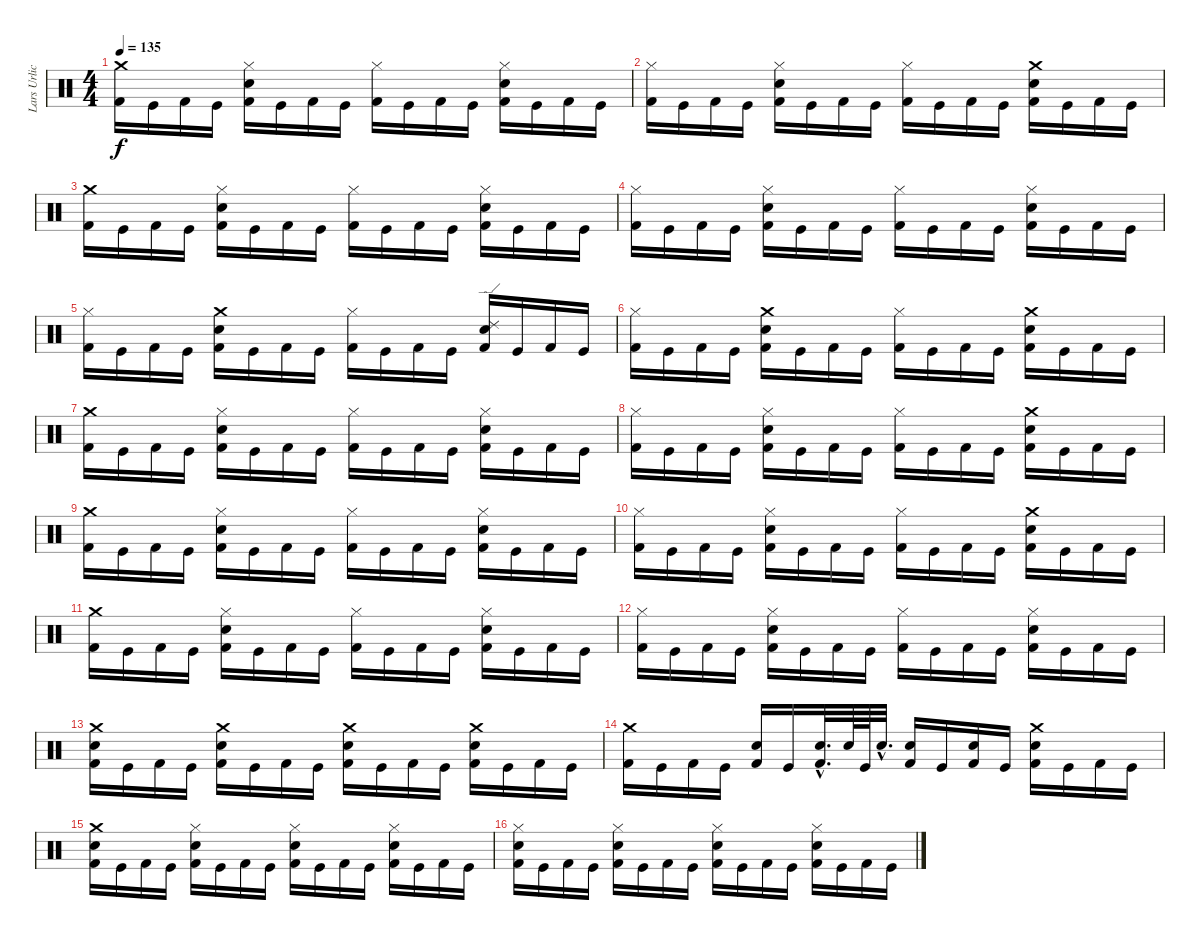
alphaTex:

\track ("Lars Urlich (drums)" "Lars Urlic") {instrument percussion}
\staff {score}
\articulation defaults
\ts (4 4)
\tempo 135
\clef neutral
\ks c
("Crash medium (hit)" "Kick (hit) 2").16{dy f} "Kick (hit)".16 "Kick (hit) 2".16 "Kick (hit)".16 ("Snare (hit) 2" "Hi-Hat (closed)" "Kick (hit) 2").16 "Kick (hit)".16 "Kick (hit) 2".16 "Kick (hit)".16 ("Hi-Hat (closed)" "Kick (hit) 2").16 "Kick (hit)".16 "Kick (hit) 2".16 "Kick (hit)".16 ("Snare (hit) 2" "Hi-Hat (closed)" "Kick (hit) 2").16 "Kick (hit)".16 "Kick (hit) 2".16 "Kick (hit)".16 |
("Hi-Hat (closed)" "Kick (hit) 2").16 "Kick (hit)".16 "Kick (hit) 2".16 "Kick (hit)".16 ("Snare (hit) 2" "Hi-Hat (closed)" "Kick (hit) 2").16 "Kick (hit)".16 "Kick (hit) 2".16 "Kick (hit)".16 ("Hi-Hat (closed)" "Kick (hit) 2").16 "Kick (hit)".16 "Kick (hit) 2".16 "Kick (hit)".16 ("Crash medium (hit)" "Snare (hit) 2" "Kick (hit) 2").16 "Kick (hit)".16 "Kick (hit) 2".16 "Kick (hit)".16 |
("Crash medium (hit)" "Kick (hit) 2").16 "Kick (hit)".16 "Kick (hit) 2".16 "Kick (hit)".16 ("Snare (hit) 2" "Hi-Hat (closed)" "Kick (hit) 2").16 "Kick (hit)".16 "Kick (hit) 2".16 "Kick (hit)".16 ("Hi-Hat (closed)" "Kick (hit) 2").16 "Kick (hit)".16 "Kick (hit) 2".16 "Kick (hit)".16 ("Snare (hit) 2" "Hi-Hat (closed)" "Kick (hit) 2").16 "Kick (hit)".16 "Kick (hit) 2".16 "Kick (hit)".16 |
("Hi-Hat (closed)" "Kick (hit) 2").16 "Kick (hit)".16 "Kick (hit) 2".16 "Kick (hit)".16 ("Snare (hit) 2" "Hi-Hat (closed)" "Kick (hit) 2").16 "Kick (hit)".16 "Kick (hit) 2".16 "Kick (hit)".16 ("Hi-Hat (closed)" "Kick (hit) 2").16 "Kick (hit)".16 "Kick (hit) 2".16 "Kick (hit)".16 ("Snare (hit) 2" "Hi-Hat (closed)" "Kick (hit) 2").16 "Kick (hit)".16 "Kick (hit) 2".16 "Kick (hit)".16 |
("Hi-Hat (closed)" "Kick (hit) 2").16 "Kick (hit)".16 "Kick (hit) 2".16 "Kick (hit)".16 ("Crash medium (hit)" "Snare (hit) 2" "Kick (hit) 2").16 "Kick (hit)".16 "Kick (hit) 2".16 "Kick (hit)".16 ("Hi-Hat (closed)" "Kick (hit) 2").16 "Kick (hit)".16 "Kick (hit) 2".16 "Kick (hit)".16 ("Ride (edge) 2" "Snare (hit) 2" "Kick (hit) 2").16 "Kick (hit)".16 "Kick (hit) 2".16 "Kick (hit)".16 |
("Hi-Hat (closed)" "Kick (hit) 2").16 "Kick (hit)".16 "Kick (hit) 2".16 "Kick (hit)".16 ("Crash medium (hit)" "Snare (hit) 2" "Kick (hit) 2").16 "Kick (hit)".16 "Kick (hit) 2".16 "Kick (hit)".16 ("Hi-Hat (closed)" "Kick (hit) 2").16 "Kick (hit)".16 "Kick (hit) 2".16 "Kick (hit)".16 ("Crash medium (hit)" "Snare (hit) 2" "Kick (hit) 2").16 "Kick (hit)".16 "Kick (hit) 2".16 "Kick (hit)".16 |
("Crash medium (hit)" "Kick (hit) 2").16 "Kick (hit)".16 "Kick (hit) 2".16 "Kick (hit)".16 ("Snare (hit) 2" "Hi-Hat (closed)" "Kick (hit) 2").16 "Kick (hit)".16 "Kick (hit) 2".16 "Kick (hit)".16 ("Hi-Hat (closed)" "Kick (hit) 2").16 "Kick (hit)".16 "Kick (hit) 2".16 "Kick (hit)".16 ("Snare (hit) 2" "Hi-Hat (closed)" "Kick (hit) 2").16 "Kick (hit)".16 "Kick (hit) 2".16 "Kick (hit)".16 |
("Hi-Hat (closed)" "Kick (hit) 2").16 "Kick (hit)".16 "Kick (hit) 2".16 "Kick (hit)".16 ("Snare (hit) 2" "Hi-Hat (closed)" "Kick (hit) 2").16 "Kick (hit)".16 "Kick (hit) 2".16 "Kick (hit)".16 ("Hi-Hat (closed)" "Kick (hit) 2").16 "Kick (hit)".16 "Kick (hit) 2".16 "Kick (hit)".16 ("Crash medium (hit)" "Snare (hit) 2" "Kick (hit) 2").16 "Kick (hit)".16 "Kick (hit) 2".16 "Kick (hit)".16 |
("Crash medium (hit)" "Kick (hit) 2").16 "Kick (hit)".16 "Kick (hit) 2".16 "Kick (hit)".16 ("Snare (hit) 2" "Hi-Hat (closed)" "Kick (hit) 2").16 "Kick (hit)".16 "Kick (hit) 2".16 "Kick (hit)".16 ("Hi-Hat (closed)" "Kick (hit) 2").16 "Kick (hit)".16 "Kick (hit) 2".16 "Kick (hit)".16 ("Snare (hit) 2" "Hi-Hat (closed)" "Kick (hit) 2").16 "Kick (hit)".16 "Kick (hit) 2".16 "Kick (hit)".16 |
("Hi-Hat (closed)" "Kick (hit) 2").16 "Kick (hit)".16 "Kick (hit) 2".16 "Kick (hit)".16 ("Snare (hit) 2" "Hi-Hat (closed)" "Kick (hit) 2").16 "Kick (hit)".16 "Kick (hit) 2".16 "Kick (hit)".16 ("Hi-Hat (closed)" "Kick (hit) 2").16 "Kick (hit)".16 "Kick (hit) 2".16 "Kick (hit)".16 ("Crash medium (hit)" "Snare (hit) 2" "Kick (hit) 2").16 "Kick (hit)".16 "Kick (hit) 2".16 "Kick (hit)".16 |
("Crash medium (hit)" "Kick (hit) 2").16 "Kick (hit)".16 "Kick (hit) 2".16 "Kick (hit)".16 ("Snare (hit) 2" "Hi-Hat (closed)" "Kick (hit) 2").16 "Kick (hit)".16 "Kick (hit) 2".16 "Kick (hit)".16 ("Hi-Hat (closed)" "Kick (hit) 2").16 "Kick (hit)".16 "Kick (hit) 2".16 "Kick (hit)".16 ("Snare (hit) 2" "Hi-Hat (closed)" "Kick (hit) 2").16 "Kick (hit)".16 "Kick (hit) 2".16 "Kick (hit)".16 |
("Hi-Hat (closed)" "Kick (hit) 2").16 "Kick (hit)".16 "Kick (hit) 2".16 "Kick (hit)".16 ("Snare (hit) 2" "Hi-Hat (closed)" "Kick (hit) 2").16 "Kick (hit)".16 "Kick (hit) 2".16 "Kick (hit)".16 ("Hi-Hat (closed)" "Kick (hit) 2").16 "Kick (hit)".16 "Kick (hit) 2".16 "Kick (hit)".16 ("Snare (hit) 2" "Hi-Hat (closed)" "Kick (hit) 2").16 "Kick (hit)".16 "Kick (hit) 2".16 "Kick (hit)".16 |
("Crash medium (hit)" "Snare (hit) 2" "Kick (hit) 2").16 "Kick (hit)".16 "Kick (hit) 2".16 "Kick (hit)".16 ("Crash medium (hit)" "Snare (hit) 2" "Kick (hit) 2").16 "Kick (hit)".16 "Kick (hit) 2".16 "Kick (hit)".16 ("Crash medium (hit)" "Snare (hit) 2" "Kick (hit) 2").16 "Kick (hit)".16 "Kick (hit) 2".16 "Kick (hit)".16 ("Crash medium (hit)" "Snare (hit) 2" "Kick (hit) 2").16 "Kick (hit)".16 "Kick (hit) 2".16 "Kick (hit)".16 |
("Crash medium (hit)" "Kick (hit) 2").16 "Kick (hit)".16 "Kick (hit) 2".16 "Kick (hit)".16 ("Snare (hit) 2" "Kick (hit) 2").16 "Kick (hit)".16 ("Snare (hit) 2"{hac} "Kick (hit) 2"{hac}).32{d} "Snare (hit) 2".64 "Kick (hit)".64 "Snare (hit) 2"{hac}.32{d} ("Snare (hit) 2" "Kick (hit) 2").16 "Kick (hit)".16 ("Snare (hit) 2" "Kick (hit) 2").16 "Kick (hit)".16 ("Snare (hit) 2" "Crash medium (hit)" "Kick (hit) 2").16 "Kick (hit)".16 "Kick (hit) 2".16 "Kick (hit)".16 |
("Snare (hit) 2" "Crash medium (hit)" "Kick (hit) 2").16 "Kick (hit)".16 "Kick (hit) 2".16 "Kick (hit)".16 ("Hi-Hat (closed)" "Snare (hit) 2" "Kick (hit) 2").16 "Kick (hit)".16 "Kick (hit) 2".16 "Kick (hit)".16 ("Hi-Hat (closed)" "Snare (hit) 2" "Kick (hit) 2").16 "Kick (hit)".16 "Kick (hit) 2".16 "Kick (hit)".16 ("Hi-Hat (closed)" "Snare (hit) 2" "Kick (hit) 2").16 "Kick (hit)".16 "Kick (hit) 2".16 "Kick (hit)".16 |
("Hi-Hat (closed)" "Snare (hit) 2" "Kick (hit) 2").16 "Kick (hit)".16 "Kick (hit) 2".16 "Kick (hit)".16 ("Snare (hit) 2" "Hi-Hat (closed)" "Kick (hit) 2").16 "Kick (hit)".16 "Kick (hit) 2".16 "Kick (hit)".16 ("Hi-Hat (closed)" "Snare (hit) 2" "Kick (hit) 2").16 "Kick (hit)".16 "Kick (hit) 2".16 "Kick (hit)".16 ("Snare (hit) 2" "Hi-Hat (closed)" "Kick (hit) 2").16 "Kick (hit)".16 "Kick (hit) 2".16 "Kick (hit)".16
